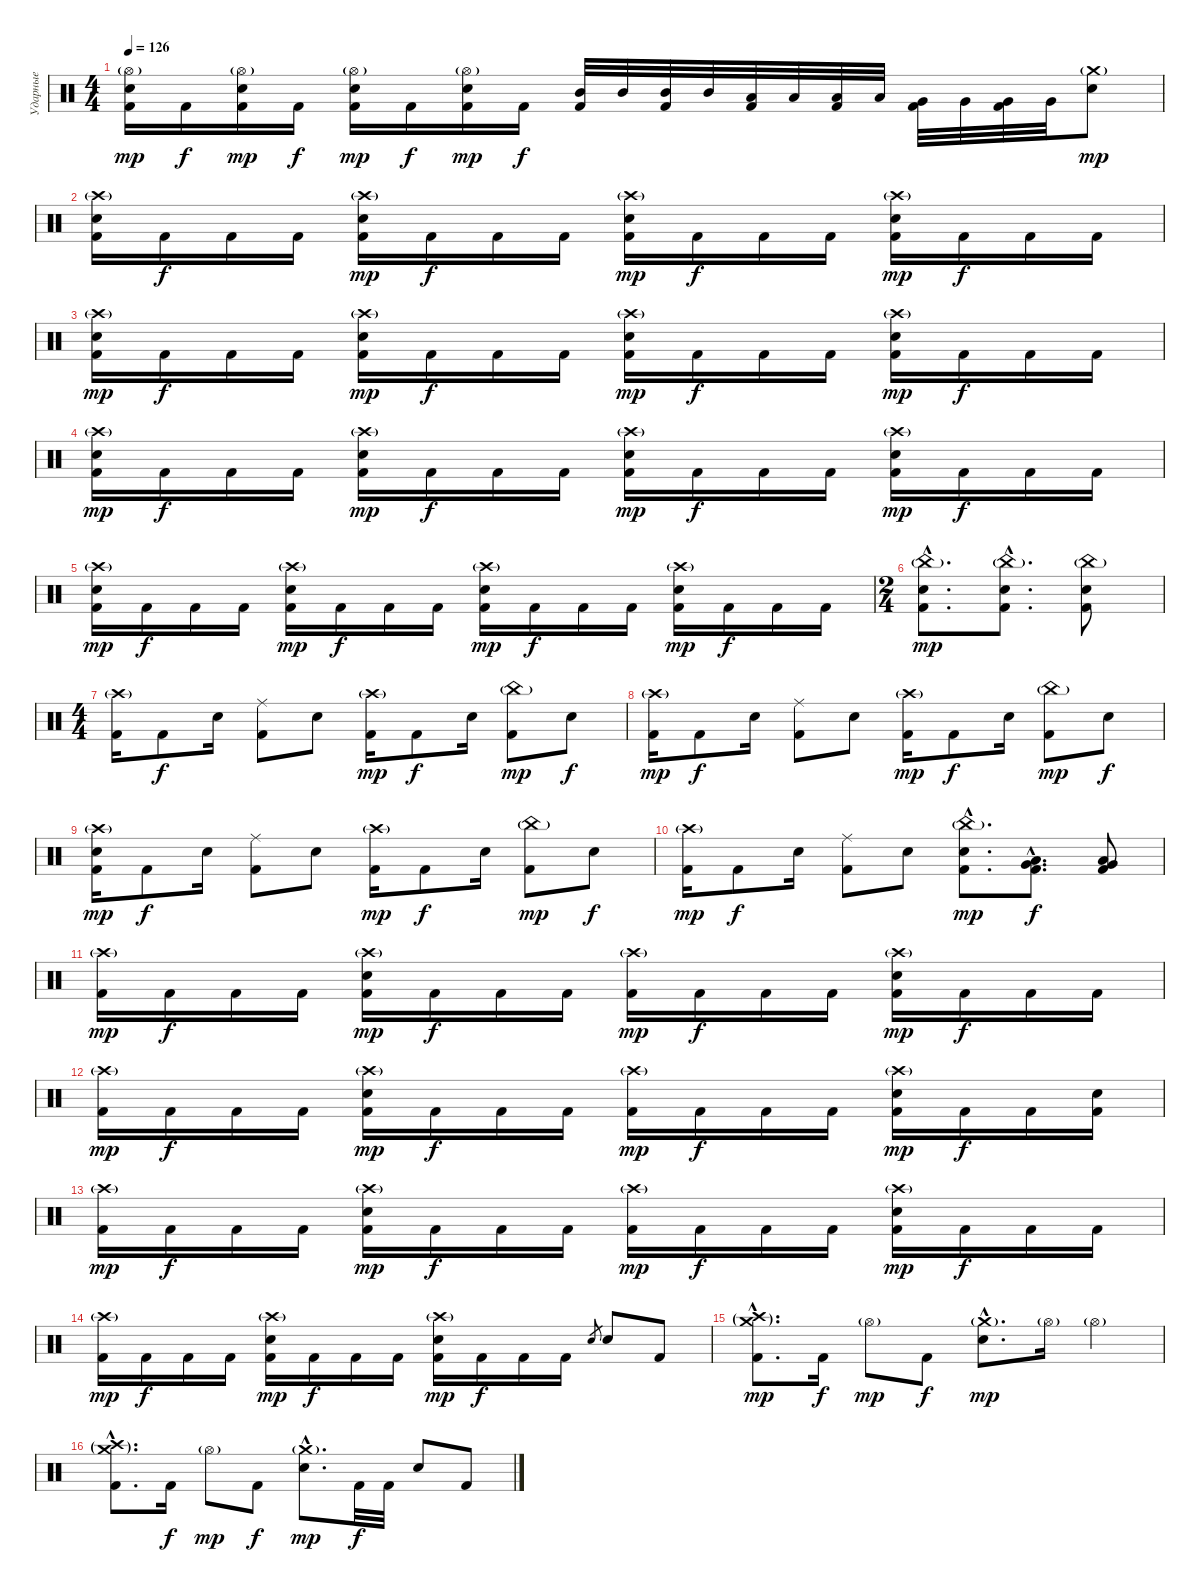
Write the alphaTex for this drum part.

\track ("Ударные" "Ударные") {instrument percussion}
\staff {score}
\articulation defaults
\ts (4 4)
\tempo 126
\clef neutral
\ks c
("Hi-Hat (open)"{g} "Electric Snare (hit)" "Kick (hit) 2").16{dy mp} "Kick (hit) 2".16{dy f} ("Hi-Hat (open)"{g} "Electric Snare (hit)" "Kick (hit) 2").16{dy mp} "Kick (hit) 2".16{dy f} ("Hi-Hat (open)"{g} "Electric Snare (hit)" "Kick (hit) 2").16{dy mp} "Kick (hit) 2".16{dy f} ("Hi-Hat (open)"{g} "Electric Snare (hit)" "Kick (hit) 2").16{dy mp} "Kick (hit) 2".16{dy f} ("Mid Tom (hit)" "Kick (hit) 2").32 "Mid Tom (hit)".32 ("Mid Tom (hit)" "Kick (hit) 2").32 "Mid Tom (hit)".32 ("Low Tom (hit)" "Kick (hit) 2").32 "Low Tom (hit)".32 ("Low Tom (hit)" "Kick (hit) 2").32 "Low Tom (hit)".32 ("Very Low Tom (hit)" "Kick (hit) 2").32 "Very Low Tom (hit)".32 ("Very Low Tom (hit)" "Kick (hit) 2").32 "Very Low Tom (hit)".32 ("Crash medium (hit)"{g} "Electric Snare (hit)").8{dy mp} |
("Crash high (hit)"{g} "Electric Snare (hit)" "Kick (hit) 2").16 "Kick (hit) 2".16{dy f} "Kick (hit) 2".16 "Kick (hit) 2".16 ("Crash high (hit)"{g} "Electric Snare (hit)" "Kick (hit) 2").16{dy mp} "Kick (hit) 2".16{dy f} "Kick (hit) 2".16 "Kick (hit) 2".16 ("Crash high (hit)"{g} "Electric Snare (hit)" "Kick (hit) 2").16{dy mp} "Kick (hit) 2".16{dy f} "Kick (hit) 2".16 "Kick (hit) 2".16 ("Crash high (hit)"{g} "Electric Snare (hit)" "Kick (hit) 2").16{dy mp} "Kick (hit) 2".16{dy f} "Kick (hit) 2".16 "Kick (hit) 2".16 |
("Crash high (hit)"{g} "Electric Snare (hit)" "Kick (hit) 2").16{dy mp} "Kick (hit) 2".16{dy f} "Kick (hit) 2".16 "Kick (hit) 2".16 ("Crash high (hit)"{g} "Electric Snare (hit)" "Kick (hit) 2").16{dy mp} "Kick (hit) 2".16{dy f} "Kick (hit) 2".16 "Kick (hit) 2".16 ("Crash high (hit)"{g} "Electric Snare (hit)" "Kick (hit) 2").16{dy mp} "Kick (hit) 2".16{dy f} "Kick (hit) 2".16 "Kick (hit) 2".16 ("Crash high (hit)"{g} "Electric Snare (hit)" "Kick (hit) 2").16{dy mp} "Kick (hit) 2".16{dy f} "Kick (hit) 2".16 "Kick (hit) 2".16 |
("Crash high (hit)"{g} "Electric Snare (hit)" "Kick (hit) 2").16{dy mp} "Kick (hit) 2".16{dy f} "Kick (hit) 2".16 "Kick (hit) 2".16 ("Crash high (hit)"{g} "Electric Snare (hit)" "Kick (hit) 2").16{dy mp} "Kick (hit) 2".16{dy f} "Kick (hit) 2".16 "Kick (hit) 2".16 ("Crash high (hit)"{g} "Electric Snare (hit)" "Kick (hit) 2").16{dy mp} "Kick (hit) 2".16{dy f} "Kick (hit) 2".16 "Kick (hit) 2".16 ("Crash high (hit)"{g} "Electric Snare (hit)" "Kick (hit) 2").16{dy mp} "Kick (hit) 2".16{dy f} "Kick (hit) 2".16 "Kick (hit) 2".16 |
("Crash high (hit)"{g} "Electric Snare (hit)" "Kick (hit) 2").16{dy mp} "Kick (hit) 2".16{dy f} "Kick (hit) 2".16 "Kick (hit) 2".16 ("Crash high (hit)"{g} "Electric Snare (hit)" "Kick (hit) 2").16{dy mp} "Kick (hit) 2".16{dy f} "Kick (hit) 2".16 "Kick (hit) 2".16 ("Crash high (hit)"{g} "Electric Snare (hit)" "Kick (hit) 2").16{dy mp} "Kick (hit) 2".16{dy f} "Kick (hit) 2".16 "Kick (hit) 2".16 ("Crash high (hit)"{g} "Electric Snare (hit)" "Kick (hit) 2").16{dy mp} "Kick (hit) 2".16{dy f} "Kick (hit) 2".16 "Kick (hit) 2".16 |
\ts (2 4)
("China (hit)"{g hac} "Electric Snare (hit)"{hac} "Kick (hit) 2"{hac}).8{d dy mp} ("China (hit)"{g hac} "Electric Snare (hit)"{hac} "Kick (hit) 2"{hac}).8{d} ("China (hit)"{g} "Electric Snare (hit)" "Kick (hit) 2").8 |
\ts (4 4)
("Crash high (hit)"{g} "Kick (hit) 2").16 "Kick (hit) 2".8{dy f} "Electric Snare (hit)".16 ("Ride (middle)" "Kick (hit) 2").8 "Electric Snare (hit)".8 ("Crash high (hit)"{g} "Kick (hit) 2").16{dy mp} "Kick (hit) 2".8{dy f} "Electric Snare (hit)".16 ("China (hit)"{g} "Kick (hit) 2").8{dy mp} "Electric Snare (hit)".8{dy f} |
("Crash high (hit)"{g} "Kick (hit) 2").16{dy mp} "Kick (hit) 2".8{dy f} "Electric Snare (hit)".16 ("Ride (middle)" "Kick (hit) 2").8 "Electric Snare (hit)".8 ("Crash high (hit)"{g} "Kick (hit) 2").16{dy mp} "Kick (hit) 2".8{dy f} "Electric Snare (hit)".16 ("China (hit)"{g} "Kick (hit) 2").8{dy mp} "Electric Snare (hit)".8{dy f} |
("Crash high (hit)"{g} "Electric Snare (hit)" "Kick (hit) 2").16{dy mp} "Kick (hit) 2".8{dy f} "Electric Snare (hit)".16 ("Ride (middle)" "Kick (hit) 2").8 "Electric Snare (hit)".8 ("Crash high (hit)"{g} "Kick (hit) 2").16{dy mp} "Kick (hit) 2".8{dy f} "Electric Snare (hit)".16 ("China (hit)"{g} "Kick (hit) 2").8{dy mp} "Electric Snare (hit)".8{dy f} |
("Crash high (hit)"{g} "Kick (hit) 2").16{dy mp} "Kick (hit) 2".8{dy f} "Electric Snare (hit)".16 ("Ride (middle)" "Kick (hit) 2").8 "Electric Snare (hit)".8 ("China (hit)"{g hac} "Electric Snare (hit)"{hac} "Kick (hit) 2"{hac}).8{d dy mp} ("Very Low Tom (hit)"{hac} "Low Tom (hit)"{hac} "Kick (hit) 2"{hac}).8{d dy f} ("Very Low Tom (hit)" "Low Tom (hit)" "Kick (hit) 2").8 |
("Crash high (hit)"{g} "Kick (hit) 2").16{dy mp} "Kick (hit) 2".16{dy f} "Kick (hit) 2".16 "Kick (hit) 2".16 ("Crash high (hit)"{g} "Electric Snare (hit)" "Kick (hit) 2").16{dy mp} "Kick (hit) 2".16{dy f} "Kick (hit) 2".16 "Kick (hit) 2".16 ("Crash high (hit)"{g} "Kick (hit) 2").16{dy mp} "Kick (hit) 2".16{dy f} "Kick (hit) 2".16 "Kick (hit) 2".16 ("Crash high (hit)"{g} "Electric Snare (hit)" "Kick (hit) 2").16{dy mp} "Kick (hit) 2".16{dy f} "Kick (hit) 2".16 "Kick (hit) 2".16 |
("Crash high (hit)"{g} "Kick (hit) 2").16{dy mp} "Kick (hit) 2".16{dy f} "Kick (hit) 2".16 "Kick (hit) 2".16 ("Crash high (hit)"{g} "Electric Snare (hit)" "Kick (hit) 2").16{dy mp} "Kick (hit) 2".16{dy f} "Kick (hit) 2".16 "Kick (hit) 2".16 ("Crash high (hit)"{g} "Kick (hit) 2").16{dy mp} "Kick (hit) 2".16{dy f} "Kick (hit) 2".16 "Kick (hit) 2".16 ("Crash high (hit)"{g} "Electric Snare (hit)" "Kick (hit) 2").16{dy mp} "Kick (hit) 2".16{dy f} "Kick (hit) 2".16 ("Electric Snare (hit)" "Kick (hit) 2").16 |
("Crash high (hit)"{g} "Kick (hit) 2").16{dy mp} "Kick (hit) 2".16{dy f} "Kick (hit) 2".16 "Kick (hit) 2".16 ("Crash high (hit)"{g} "Electric Snare (hit)" "Kick (hit) 2").16{dy mp} "Kick (hit) 2".16{dy f} "Kick (hit) 2".16 "Kick (hit) 2".16 ("Crash high (hit)"{g} "Kick (hit) 2").16{dy mp} "Kick (hit) 2".16{dy f} "Kick (hit) 2".16 "Kick (hit) 2".16 ("Crash high (hit)"{g} "Electric Snare (hit)" "Kick (hit) 2").16{dy mp} "Kick (hit) 2".16{dy f} "Kick (hit) 2".16 "Kick (hit) 2".16 |
("Crash high (hit)"{g} "Kick (hit) 2").16{dy mp} "Kick (hit) 2".16{dy f} "Kick (hit) 2".16 "Kick (hit) 2".16 ("Crash high (hit)"{g} "Electric Snare (hit)" "Kick (hit) 2").16{dy mp} "Kick (hit) 2".16{dy f} "Kick (hit) 2".16 "Kick (hit) 2".16 ("Crash high (hit)"{g} "Electric Snare (hit)" "Kick (hit) 2").16{dy mp} "Kick (hit) 2".16{dy f} "Kick (hit) 2".16 "Kick (hit) 2".16 "Electric Snare (hit)".8{gr} "Electric Snare (hit)".8 "Kick (hit) 2".8 |
("Crash high (hit)"{g hac} "Crash medium (hit)"{g hac} "Kick (hit) 2"{hac}).8{d dy mp} "Kick (hit) 2".16{dy f} "Hi-Hat (open)"{g}.8{dy mp} "Kick (hit) 2".8{dy f} ("Crash medium (hit)"{g hac} "Electric Snare (hit)"{hac}).8{d dy mp} "Hi-Hat (open)"{g}.16 "Hi-Hat (open)"{g}.4 |
("Crash high (hit)"{g hac} "Crash medium (hit)"{g hac} "Kick (hit) 2"{hac}).8{d} "Kick (hit) 2".16{dy f} "Hi-Hat (open)"{g}.8{dy mp} "Kick (hit) 2".8{dy f} ("Crash medium (hit)"{g hac} "Electric Snare (hit)"{hac}).8{d dy mp} "Kick (hit) 2".32{dy f} "Kick (hit) 2".32 "Electric Snare (hit)".8 "Kick (hit) 2".8
